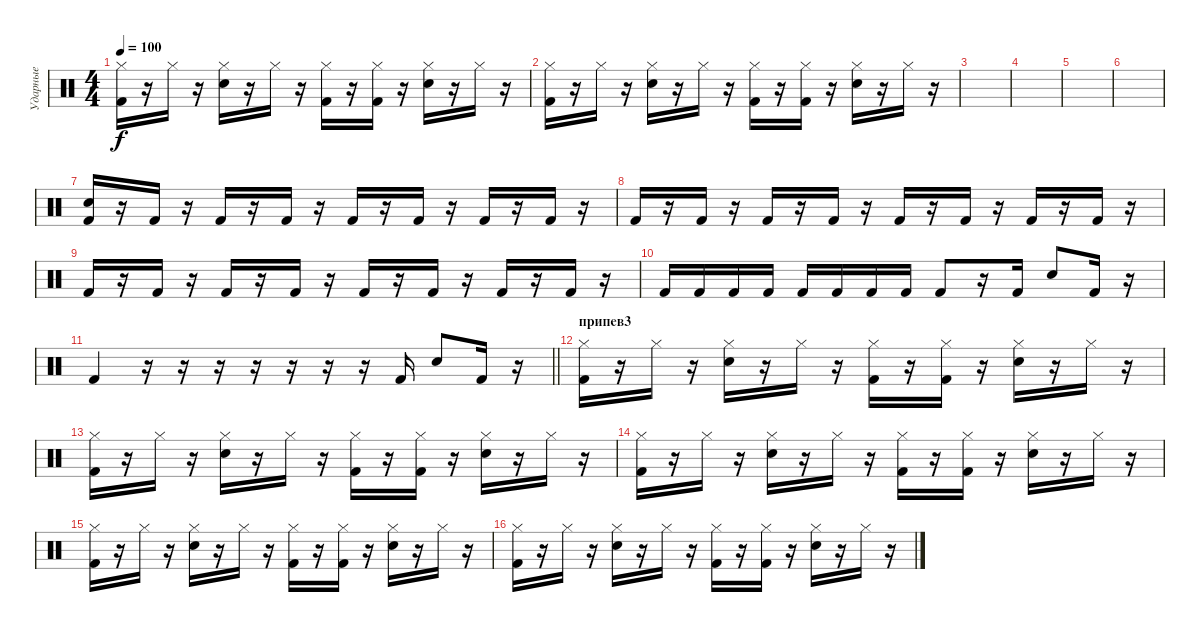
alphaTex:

\track ("Ударные" "Ударные") {instrument percussion}
\staff {score}
\articulation defaults
\ts (4 4)
\tempo 100
\clef neutral
\ks c
("Kick (hit) 2" "Hi-Hat (closed)").16{dy f} r.16 "Hi-Hat (closed)".16 r.16 ("Snare (hit) 2" "Hi-Hat (closed)").16 r.16 "Hi-Hat (closed)".16 r.16 ("Kick (hit) 2" "Hi-Hat (closed)").16 r.16 ("Kick (hit) 2" "Hi-Hat (closed)").16 r.16 ("Snare (hit) 2" "Hi-Hat (closed)").16 r.16 "Hi-Hat (closed)".16 r.16 |
("Kick (hit) 2" "Hi-Hat (closed)").16 r.16 "Hi-Hat (closed)".16 r.16 ("Snare (hit) 2" "Hi-Hat (closed)").16 r.16 "Hi-Hat (closed)".16 r.16 ("Kick (hit) 2" "Hi-Hat (closed)").16 r.16 ("Kick (hit) 2" "Hi-Hat (closed)").16 r.16 ("Snare (hit) 2" "Hi-Hat (closed)").16 r.16 "Hi-Hat (closed)".16 r.16 |
|
|
|
|
("Kick (hit) 2" "Snare (hit) 2").16 r.16 "Kick (hit) 2".16 r.16 "Kick (hit) 2".16 r.16 "Kick (hit) 2".16 r.16 "Kick (hit) 2".16 r.16 "Kick (hit) 2".16 r.16 "Kick (hit) 2".16 r.16 "Kick (hit) 2".16 r.16 |
"Kick (hit) 2".16 r.16 "Kick (hit) 2".16 r.16 "Kick (hit) 2".16 r.16 "Kick (hit) 2".16 r.16 "Kick (hit) 2".16 r.16 "Kick (hit) 2".16 r.16 "Kick (hit) 2".16 r.16 "Kick (hit) 2".16 r.16 |
"Kick (hit) 2".16 r.16 "Kick (hit) 2".16 r.16 "Kick (hit) 2".16 r.16 "Kick (hit) 2".16 r.16 "Kick (hit) 2".16 r.16 "Kick (hit) 2".16 r.16 "Kick (hit) 2".16 r.16 "Kick (hit) 2".16 r.16 |
"Kick (hit) 2".16 "Kick (hit) 2".16 "Kick (hit) 2".16 "Kick (hit) 2".16 "Kick (hit) 2".16 "Kick (hit) 2".16 "Kick (hit) 2".16 "Kick (hit) 2".16 "Kick (hit) 2".8 r.16 "Kick (hit) 2".16 "Snare (hit) 2".8 "Kick (hit) 2".16 r.16 |
\barLineRight lightlight "Kick (hit) 2".4
r.16 r.16 r.16 r.16 r.16 r.16 r.16 "Kick (hit) 2".16 "Snare (hit) 2".8 "Kick (hit) 2".16 r.16 |
\section ("" "припев3")
("Kick (hit) 2" "Hi-Hat (closed)").16 r.16 "Hi-Hat (closed)".16 r.16 ("Snare (hit) 2" "Hi-Hat (closed)").16 r.16 "Hi-Hat (closed)".16 r.16 ("Kick (hit) 2" "Hi-Hat (closed)").16 r.16 ("Kick (hit) 2" "Hi-Hat (closed)").16 r.16 ("Snare (hit) 2" "Hi-Hat (closed)").16 r.16 "Hi-Hat (closed)".16 r.16 |
("Kick (hit) 2" "Hi-Hat (closed)").16 r.16 "Hi-Hat (closed)".16 r.16 ("Snare (hit) 2" "Hi-Hat (closed)").16 r.16 "Hi-Hat (closed)".16 r.16 ("Kick (hit) 2" "Hi-Hat (closed)").16 r.16 ("Kick (hit) 2" "Hi-Hat (closed)").16 r.16 ("Snare (hit) 2" "Hi-Hat (closed)").16 r.16 "Hi-Hat (closed)".16 r.16 |
("Kick (hit) 2" "Hi-Hat (closed)").16 r.16 "Hi-Hat (closed)".16 r.16 ("Snare (hit) 2" "Hi-Hat (closed)").16 r.16 "Hi-Hat (closed)".16 r.16 ("Kick (hit) 2" "Hi-Hat (closed)").16 r.16 ("Kick (hit) 2" "Hi-Hat (closed)").16 r.16 ("Snare (hit) 2" "Hi-Hat (closed)").16 r.16 "Hi-Hat (closed)".16 r.16 |
("Kick (hit) 2" "Hi-Hat (closed)").16 r.16 "Hi-Hat (closed)".16 r.16 ("Snare (hit) 2" "Hi-Hat (closed)").16 r.16 "Hi-Hat (closed)".16 r.16 ("Kick (hit) 2" "Hi-Hat (closed)").16 r.16 ("Kick (hit) 2" "Hi-Hat (closed)").16 r.16 ("Snare (hit) 2" "Hi-Hat (closed)").16 r.16 "Hi-Hat (closed)".16 r.16 |
("Kick (hit) 2" "Hi-Hat (closed)").16 r.16 "Hi-Hat (closed)".16 r.16 ("Snare (hit) 2" "Hi-Hat (closed)").16 r.16 "Hi-Hat (closed)".16 r.16 ("Kick (hit) 2" "Hi-Hat (closed)").16 r.16 ("Kick (hit) 2" "Hi-Hat (closed)").16 r.16 ("Snare (hit) 2" "Hi-Hat (closed)").16 r.16 "Hi-Hat (closed)".16 r.16
